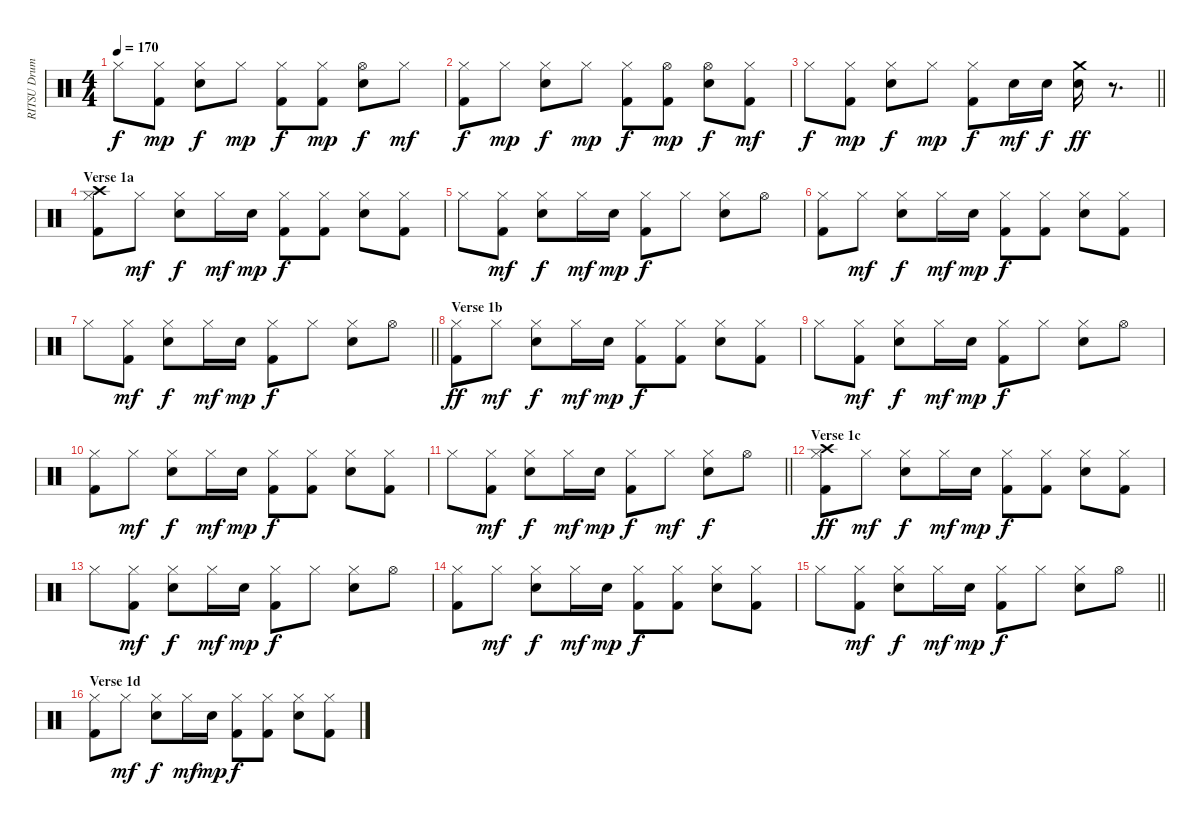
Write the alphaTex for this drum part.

\track ("RITSU Drums" "RITSU Drum") {instrument percussion}
\staff {score}
\articulation defaults
\ts (4 4)
\tempo 170
\clef neutral
\ks c "Hi-Hat (closed)".8{dy f}
("Hi-Hat (closed)" "Kick (hit) 2").8{dy mp} ("Hi-Hat (closed)" "Electric Snare (hit)").8{dy f} "Hi-Hat (closed)".8{dy mp} ("Hi-Hat (closed)" "Kick (hit) 2").8{dy f} ("Hi-Hat (closed)" "Kick (hit) 2").8{dy mp} ("Hi-Hat (open)" "Electric Snare (hit)").8{dy f} "Hi-Hat (closed)".8{dy mf} |
("Hi-Hat (closed)" "Kick (hit) 2").8{dy f} "Hi-Hat (closed)".8{dy mp} ("Hi-Hat (closed)" "Electric Snare (hit)").8{dy f} "Hi-Hat (closed)".8{dy mp} ("Hi-Hat (closed)" "Kick (hit) 2").8{dy f} ("Hi-Hat (open)" "Kick (hit) 2").8{dy mp} ("Hi-Hat (open)" "Electric Snare (hit)").8{dy f} ("Hi-Hat (closed)" "Kick (hit) 2").8{dy mf} |
\barLineRight lightlight "Hi-Hat (closed)".8{dy f}
("Hi-Hat (closed)" "Kick (hit) 2").8{dy mp} ("Hi-Hat (closed)" "Electric Snare (hit)").8{dy f} "Hi-Hat (closed)".8{dy mp} ("Hi-Hat (closed)" "Kick (hit) 2").8{dy f} "Electric Snare (hit)".16{dy mf} "Electric Snare (hit)".16{dy f} ("Crash medium (hit)" "Electric Snare (hit)").16{dy ff} r.8{d} |
\section ("" "Verse 1a")
("Crash high (hit)" "Hi-Hat (closed)" "Kick (hit) 2").8 "Hi-Hat (closed)".8{dy mf} ("Hi-Hat (closed)" "Electric Snare (hit)").8{dy f} "Hi-Hat (closed)".16{dy mf} "Electric Snare (hit)".16{dy mp} ("Hi-Hat (closed)" "Kick (hit) 2").8{dy f} ("Hi-Hat (closed)" "Kick (hit) 2").8 ("Hi-Hat (closed)" "Electric Snare (hit)").8 ("Hi-Hat (closed)" "Kick (hit) 2").8 |
"Hi-Hat (closed)".8 ("Hi-Hat (closed)" "Kick (hit) 2").8{dy mf} ("Hi-Hat (closed)" "Electric Snare (hit)").8{dy f} "Hi-Hat (closed)".16{dy mf} "Electric Snare (hit)".16{dy mp} ("Hi-Hat (closed)" "Kick (hit) 2").8{dy f} "Hi-Hat (closed)".8 ("Hi-Hat (closed)" "Electric Snare (hit)").8 "Hi-Hat (open)".8 |
("Hi-Hat (closed)" "Kick (hit) 2").8 "Hi-Hat (closed)".8{dy mf} ("Hi-Hat (closed)" "Electric Snare (hit)").8{dy f} "Hi-Hat (closed)".16{dy mf} "Electric Snare (hit)".16{dy mp} ("Hi-Hat (closed)" "Kick (hit) 2").8{dy f} ("Hi-Hat (closed)" "Kick (hit) 2").8 ("Hi-Hat (closed)" "Electric Snare (hit)").8 ("Hi-Hat (closed)" "Kick (hit) 2").8 |
\barLineRight lightlight "Hi-Hat (closed)".8
("Hi-Hat (closed)" "Kick (hit) 2").8{dy mf} ("Hi-Hat (closed)" "Electric Snare (hit)").8{dy f} "Hi-Hat (closed)".16{dy mf} "Electric Snare (hit)".16{dy mp} ("Hi-Hat (closed)" "Kick (hit) 2").8{dy f} "Hi-Hat (closed)".8 ("Hi-Hat (closed)" "Electric Snare (hit)").8 "Hi-Hat (open)".8 |
\section ("" "Verse 1b")
("Hi-Hat (closed)" "Kick (hit) 2").8{dy ff} "Hi-Hat (closed)".8{dy mf} ("Hi-Hat (closed)" "Electric Snare (hit)").8{dy f} "Hi-Hat (closed)".16{dy mf} "Electric Snare (hit)".16{dy mp} ("Hi-Hat (closed)" "Kick (hit) 2").8{dy f} ("Hi-Hat (closed)" "Kick (hit) 2").8 ("Hi-Hat (closed)" "Electric Snare (hit)").8 ("Hi-Hat (closed)" "Kick (hit) 2").8 |
"Hi-Hat (closed)".8 ("Hi-Hat (closed)" "Kick (hit) 2").8{dy mf} ("Hi-Hat (closed)" "Electric Snare (hit)").8{dy f} "Hi-Hat (closed)".16{dy mf} "Electric Snare (hit)".16{dy mp} ("Hi-Hat (closed)" "Kick (hit) 2").8{dy f} "Hi-Hat (closed)".8 ("Hi-Hat (closed)" "Electric Snare (hit)").8 "Hi-Hat (open)".8 |
("Hi-Hat (closed)" "Kick (hit) 2").8 "Hi-Hat (closed)".8{dy mf} ("Hi-Hat (closed)" "Electric Snare (hit)").8{dy f} "Hi-Hat (closed)".16{dy mf} "Electric Snare (hit)".16{dy mp} ("Hi-Hat (closed)" "Kick (hit) 2").8{dy f} ("Hi-Hat (closed)" "Kick (hit) 2").8 ("Hi-Hat (closed)" "Electric Snare (hit)").8 ("Hi-Hat (closed)" "Kick (hit) 2").8 |
\barLineRight lightlight "Hi-Hat (closed)".8
("Hi-Hat (closed)" "Kick (hit) 2").8{dy mf} ("Hi-Hat (closed)" "Electric Snare (hit)").8{dy f} "Hi-Hat (closed)".16{dy mf} "Electric Snare (hit)".16{dy mp} ("Hi-Hat (closed)" "Kick (hit) 2").8{dy f} "Hi-Hat (closed)".8{dy mf} ("Hi-Hat (closed)" "Electric Snare (hit)").8{dy f} "Hi-Hat (open)".8 |
\section ("" "Verse 1c")
("Crash high (hit)" "Hi-Hat (closed)" "Kick (hit) 2").8{dy ff} "Hi-Hat (closed)".8{dy mf} ("Hi-Hat (closed)" "Electric Snare (hit)").8{dy f} "Hi-Hat (closed)".16{dy mf} "Electric Snare (hit)".16{dy mp} ("Hi-Hat (closed)" "Kick (hit) 2").8{dy f} ("Hi-Hat (closed)" "Kick (hit) 2").8 ("Hi-Hat (closed)" "Electric Snare (hit)").8 ("Hi-Hat (closed)" "Kick (hit) 2").8 |
"Hi-Hat (closed)".8 ("Hi-Hat (closed)" "Kick (hit) 2").8{dy mf} ("Hi-Hat (closed)" "Electric Snare (hit)").8{dy f} "Hi-Hat (closed)".16{dy mf} "Electric Snare (hit)".16{dy mp} ("Hi-Hat (closed)" "Kick (hit) 2").8{dy f} "Hi-Hat (closed)".8 ("Hi-Hat (closed)" "Electric Snare (hit)").8 "Hi-Hat (open)".8 |
("Hi-Hat (closed)" "Kick (hit) 2").8 "Hi-Hat (closed)".8{dy mf} ("Hi-Hat (closed)" "Electric Snare (hit)").8{dy f} "Hi-Hat (closed)".16{dy mf} "Electric Snare (hit)".16{dy mp} ("Hi-Hat (closed)" "Kick (hit) 2").8{dy f} ("Hi-Hat (closed)" "Kick (hit) 2").8 ("Hi-Hat (closed)" "Electric Snare (hit)").8 ("Hi-Hat (closed)" "Kick (hit) 2").8 |
\barLineRight lightlight "Hi-Hat (closed)".8
("Hi-Hat (closed)" "Kick (hit) 2").8{dy mf} ("Hi-Hat (closed)" "Electric Snare (hit)").8{dy f} "Hi-Hat (closed)".16{dy mf} "Electric Snare (hit)".16{dy mp} ("Hi-Hat (closed)" "Kick (hit) 2").8{dy f} "Hi-Hat (closed)".8 ("Hi-Hat (closed)" "Electric Snare (hit)").8 "Hi-Hat (open)".8 |
\section ("" "Verse 1d")
("Hi-Hat (closed)" "Kick (hit) 2").8 "Hi-Hat (closed)".8{dy mf} ("Hi-Hat (closed)" "Electric Snare (hit)").8{dy f} "Hi-Hat (closed)".16{dy mf} "Electric Snare (hit)".16{dy mp} ("Hi-Hat (closed)" "Kick (hit) 2").8{dy f} ("Hi-Hat (closed)" "Kick (hit) 2").8 ("Hi-Hat (closed)" "Electric Snare (hit)").8 ("Hi-Hat (closed)" "Kick (hit) 2").8
